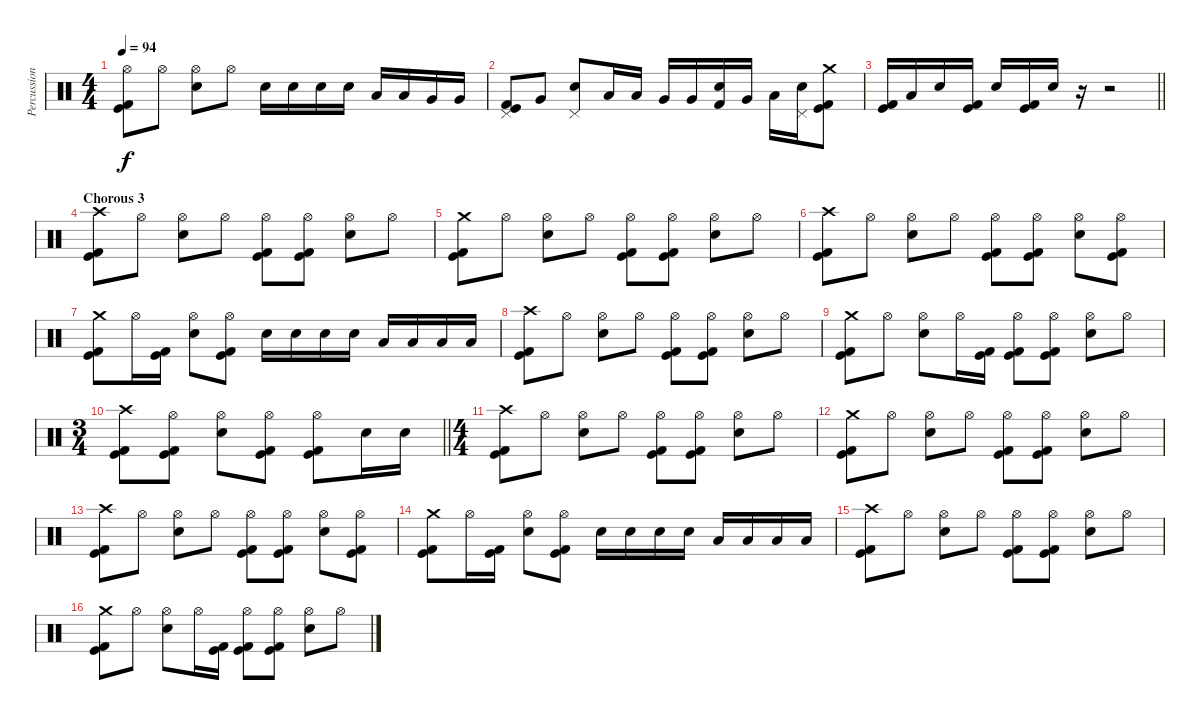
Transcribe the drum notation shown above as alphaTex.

\track ("Percussion" "Percussion") {instrument percussion}
\staff {score}
\articulation defaults
\ts (4 4)
\tempo 94
\clef neutral
\ks c
("Hi-Hat (open)" "Kick (hit)" "Kick (hit) 2").8{dy f} "Hi-Hat (open)".8 ("Hi-Hat (open)" "Electric Snare (hit)").8 "Hi-Hat (open)".8 "Electric Snare (hit)".16 "Electric Snare (hit)".16 "Electric Snare (hit)".16 "Electric Snare (hit)".16 "Low Tom (hit)".16 "Low Tom (hit)".16 "Very Low Tom (hit)".16 "Very Low Tom (hit)".16 |
("Pedal Hi-Hat (hit)" "Kick (hit)" "Kick (hit) 2").8 "Very Low Tom (hit)".8 ("Pedal Hi-Hat (hit)" "Electric Snare (hit)").8 "Low Tom (hit)".16 "Low Tom (hit)".16 "Very Low Tom (hit)".16 "Very Low Tom (hit)".16 ("Electric Snare (hit)" "Kick (hit) 2").16 "Very Low Tom (hit)".16 "Low Floor Tom (hit)".16 ("Pedal Hi-Hat (hit)" "Electric Snare (hit)").16 ("Crash medium (hit)" "Kick (hit)" "Kick (hit) 2").8 |
\barLineRight lightlight
("Kick (hit)" "Kick (hit) 2").16 "Low Tom (hit)".16 "Electric Snare (hit)".16 ("Kick (hit)" "Kick (hit) 2").16 "Electric Snare (hit)".16 ("Kick (hit)" "Kick (hit) 2").16 "Electric Snare (hit)".16 r.16 r.2 |
\section ("" "Chorous 3")
("Crash high (hit)" "Kick (hit)" "Kick (hit) 2").8 "Hi-Hat (open)".8 ("Hi-Hat (open)" "Electric Snare (hit)").8 "Hi-Hat (open)".8 ("Hi-Hat (open)" "Kick (hit)" "Kick (hit) 2").8 ("Hi-Hat (open)" "Kick (hit)" "Kick (hit) 2").8 ("Hi-Hat (open)" "Electric Snare (hit)").8 "Hi-Hat (open)".8 |
("Crash medium (hit)" "Kick (hit)" "Kick (hit) 2").8 "Hi-Hat (open)".8 ("Hi-Hat (open)" "Electric Snare (hit)").8 "Hi-Hat (open)".8 ("Hi-Hat (open)" "Kick (hit)" "Kick (hit) 2").8 ("Hi-Hat (open)" "Kick (hit)" "Kick (hit) 2").8 ("Hi-Hat (open)" "Electric Snare (hit)").8 "Hi-Hat (open)".8 |
("Crash high (hit)" "Kick (hit)" "Kick (hit) 2").8 "Hi-Hat (open)".8 ("Hi-Hat (open)" "Electric Snare (hit)").8 "Hi-Hat (open)".8 ("Hi-Hat (open)" "Kick (hit)" "Kick (hit) 2").8 ("Hi-Hat (open)" "Kick (hit)" "Kick (hit) 2").8 ("Hi-Hat (open)" "Electric Snare (hit)").8 ("Hi-Hat (open)" "Kick (hit)" "Kick (hit) 2").8 |
("Crash medium (hit)" "Kick (hit)" "Kick (hit) 2").8 "Hi-Hat (open)".16 ("Kick (hit)" "Kick (hit) 2").16 ("Hi-Hat (open)" "Electric Snare (hit)").8 ("Hi-Hat (open)" "Kick (hit)" "Kick (hit) 2").8 "Electric Snare (hit)".16 "Electric Snare (hit)".16 "Electric Snare (hit)".16 "Electric Snare (hit)".16 "Low Tom (hit)".16 "Low Tom (hit)".16 "Low Tom (hit)".16 "Low Tom (hit)".16 |
("Crash high (hit)" "Kick (hit)" "Kick (hit) 2").8 "Hi-Hat (open)".8 ("Hi-Hat (open)" "Electric Snare (hit)").8 "Hi-Hat (open)".8 ("Hi-Hat (open)" "Kick (hit)" "Kick (hit) 2").8 ("Hi-Hat (open)" "Kick (hit)" "Kick (hit) 2").8 ("Hi-Hat (open)" "Electric Snare (hit)").8 "Hi-Hat (open)".8 |
("Crash medium (hit)" "Kick (hit)" "Kick (hit) 2").8 "Hi-Hat (open)".8 ("Hi-Hat (open)" "Electric Snare (hit)").8 "Hi-Hat (open)".16 ("Kick (hit)" "Kick (hit) 2").16 ("Hi-Hat (open)" "Kick (hit)" "Kick (hit) 2").8 ("Hi-Hat (open)" "Kick (hit)" "Kick (hit) 2").8 ("Hi-Hat (open)" "Electric Snare (hit)").8 "Hi-Hat (open)".8 |
\ts (3 4)
\barLineRight lightlight
("Crash high (hit)" "Kick (hit)" "Kick (hit) 2").8 ("Hi-Hat (open)" "Kick (hit)" "Kick (hit) 2").8 ("Hi-Hat (open)" "Electric Snare (hit)").8 ("Hi-Hat (open)" "Kick (hit)" "Kick (hit) 2").8 ("Hi-Hat (open)" "Kick (hit)" "Kick (hit) 2").8 "Electric Snare (hit)".16 "Electric Snare (hit)".16 |
\ts (4 4)
("Crash high (hit)" "Kick (hit)" "Kick (hit) 2").8 "Hi-Hat (open)".8 ("Hi-Hat (open)" "Electric Snare (hit)").8 "Hi-Hat (open)".8 ("Hi-Hat (open)" "Kick (hit)" "Kick (hit) 2").8 ("Hi-Hat (open)" "Kick (hit)" "Kick (hit) 2").8 ("Hi-Hat (open)" "Electric Snare (hit)").8 "Hi-Hat (open)".8 |
("Crash medium (hit)" "Kick (hit)" "Kick (hit) 2").8 "Hi-Hat (open)".8 ("Hi-Hat (open)" "Electric Snare (hit)").8 "Hi-Hat (open)".8 ("Hi-Hat (open)" "Kick (hit)" "Kick (hit) 2").8 ("Hi-Hat (open)" "Kick (hit)" "Kick (hit) 2").8 ("Hi-Hat (open)" "Electric Snare (hit)").8 "Hi-Hat (open)".8 |
("Crash high (hit)" "Kick (hit)" "Kick (hit) 2").8 "Hi-Hat (open)".8 ("Hi-Hat (open)" "Electric Snare (hit)").8 "Hi-Hat (open)".8 ("Hi-Hat (open)" "Kick (hit)" "Kick (hit) 2").8 ("Hi-Hat (open)" "Kick (hit)" "Kick (hit) 2").8 ("Hi-Hat (open)" "Electric Snare (hit)").8 ("Hi-Hat (open)" "Kick (hit)" "Kick (hit) 2").8 |
("Crash medium (hit)" "Kick (hit)" "Kick (hit) 2").8 "Hi-Hat (open)".16 ("Kick (hit)" "Kick (hit) 2").16 ("Hi-Hat (open)" "Electric Snare (hit)").8 ("Hi-Hat (open)" "Kick (hit)" "Kick (hit) 2").8 "Electric Snare (hit)".16 "Electric Snare (hit)".16 "Electric Snare (hit)".16 "Electric Snare (hit)".16 "Low Tom (hit)".16 "Low Tom (hit)".16 "Low Tom (hit)".16 "Low Tom (hit)".16 |
("Crash high (hit)" "Kick (hit)" "Kick (hit) 2").8 "Hi-Hat (open)".8 ("Hi-Hat (open)" "Electric Snare (hit)").8 "Hi-Hat (open)".8 ("Hi-Hat (open)" "Kick (hit)" "Kick (hit) 2").8 ("Hi-Hat (open)" "Kick (hit)" "Kick (hit) 2").8 ("Hi-Hat (open)" "Electric Snare (hit)").8 "Hi-Hat (open)".8 |
("Crash medium (hit)" "Kick (hit)" "Kick (hit) 2").8 "Hi-Hat (open)".8 ("Hi-Hat (open)" "Electric Snare (hit)").8 "Hi-Hat (open)".16 ("Kick (hit)" "Kick (hit) 2").16 ("Hi-Hat (open)" "Kick (hit)" "Kick (hit) 2").8 ("Hi-Hat (open)" "Kick (hit)" "Kick (hit) 2").8 ("Hi-Hat (open)" "Electric Snare (hit)").8 "Hi-Hat (open)".8
